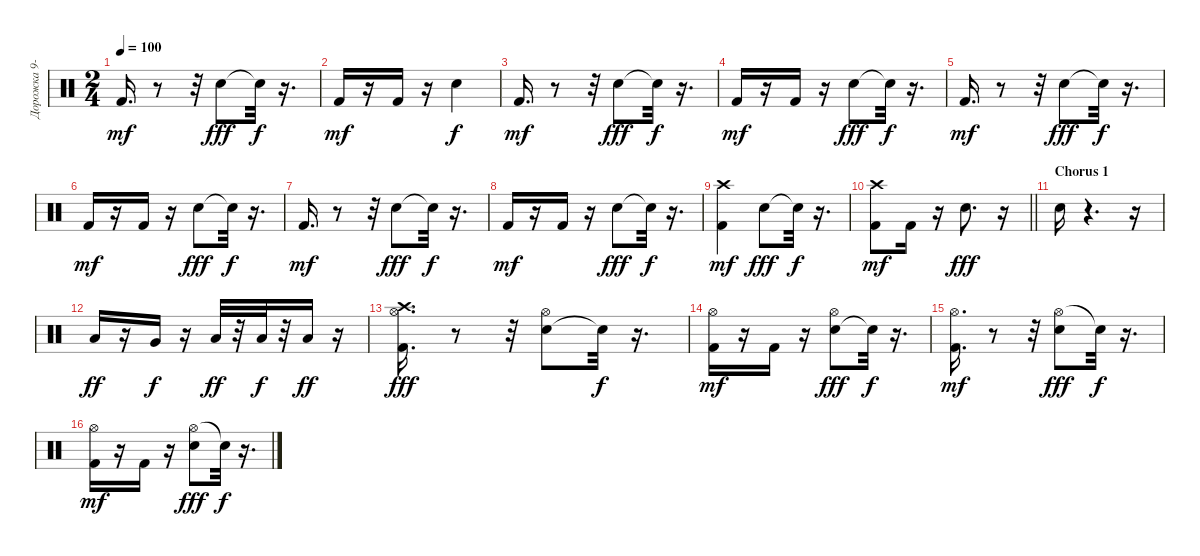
\track ("Дорожка 9-10" "Дорожка 9-") {instrument percussion}
\staff {score}
\articulation defaults
\ts (2 4)
\tempo 100
\clef neutral
\ks c "Kick (hit) 2".16{d dy mf}
r.8 r.32 "Snare (hit) 2".8{dy fff} "Snare (hit)"{t}.32{dy f} r.16{d} |
"Kick (hit) 2".16{dy mf} r.16 "Kick (hit) 2".16 r.16 "Snare (hit) 2".4{dy f} |
"Kick (hit) 2".16{d dy mf} r.8 r.32 "Snare (hit) 2".8{dy fff} "Snare (hit)"{t}.32{dy f} r.16{d} |
"Kick (hit) 2".16{dy mf} r.16 "Kick (hit) 2".16 r.16 "Snare (hit) 2".8{dy fff} "Snare (hit)"{t}.32{dy f} r.16{d} |
"Kick (hit) 2".16{d dy mf} r.8 r.32 "Snare (hit) 2".8{dy fff} "Snare (hit)"{t}.32{dy f} r.16{d} |
"Kick (hit) 2".16{dy mf} r.16 "Kick (hit) 2".16 r.16 "Snare (hit) 2".8{dy fff} "Snare (hit)"{t}.32{dy f} r.16{d} |
"Kick (hit) 2".16{d dy mf} r.8 r.32 "Snare (hit) 2".8{dy fff} "Snare (hit)"{t}.32{dy f} r.16{d} |
"Kick (hit) 2".16{dy mf} r.16 "Kick (hit) 2".16 r.16 "Snare (hit) 2".8{dy fff} "Snare (hit)"{t}.32{dy f} r.16{d} |
("Crash high (hit)" "Kick (hit) 2").4{dy mf} "Snare (hit) 2".8{dy fff} "Snare (hit)"{t}.32{dy f} r.16{d} |
\barLineRight lightlight
("Crash high (hit)" "Kick (hit) 2").8{dy mf} "Kick (hit) 2".16 r.16 "Snare (hit) 2".8{d dy fff} r.16 |
\section ("" "Chorus 1")
"Snare (hit) 2".16 r.4{d} r.16 |
"Low Floor Tom (hit)".16{dy ff} r.16 "Very Low Tom (hit)".16{dy f} r.16 "Low Tom (hit)".32{dy ff} r.32 "Low Tom (hit)".32{dy f} r.32 "Low Tom (hit)".16{dy ff} r.16 |
("Kick (hit) 2" "Crash high (hit)" "Hi-Hat (open)").16{d dy fff} r.8 r.32 ("Snare (hit) 2" "Hi-Hat (open)").8 "Snare (hit)"{t}.32{dy f} r.16{d} |
("Kick (hit) 2" "Hi-Hat (open)").16{dy mf} r.16 "Kick (hit) 2".16 r.16 ("Snare (hit) 2" "Hi-Hat (open)").8{dy fff} "Snare (hit)"{t}.32{dy f} r.16{d} |
("Hi-Hat (open)" "Kick (hit) 2").16{d dy mf} r.8 r.32 ("Hi-Hat (open)" "Snare (hit) 2").8{dy fff} "Snare (hit)"{t}.32{dy f} r.16{d} |
("Hi-Hat (open)" "Kick (hit) 2").16{dy mf} r.16 "Kick (hit) 2".16 r.16 ("Hi-Hat (open)" "Snare (hit) 2").8{dy fff} "Snare (hit)"{t}.32{dy f} r.16{d}
